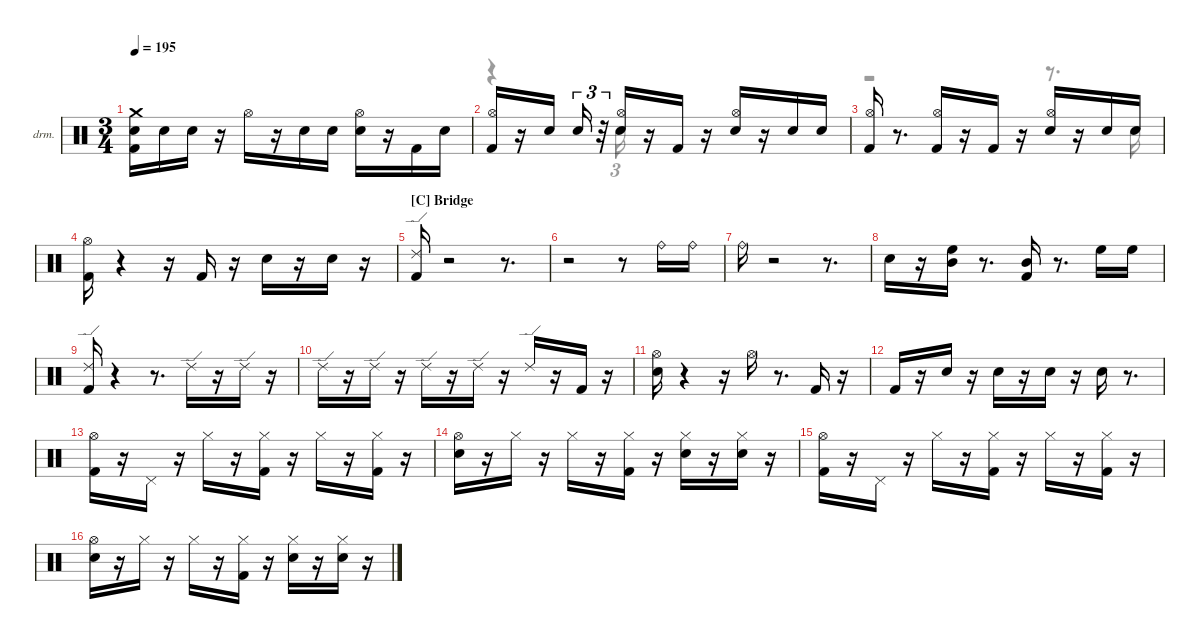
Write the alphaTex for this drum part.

\hideDynamics
\bracketExtendMode nobrackets
\firstSystemTrackNameOrientation horizontal
\track ("Drums" "drm.") {instrument percussion}
\staff {score}
\articulation defaults
\voice
\ts (3 4)
\tempo 195
\clef neutral
\ks aminor
("Kick (hit) 2" "Snare (hit) 2" "Crash medium (hit)").16{dy fff} "Snare (hit) 2".16{dy pp} "Snare (hit) 2".16{dy ppp} r.16 "Hi-Hat (open)"{acc #}.16{dy mp} r.16 "Snare (hit) 2".16{dy ff} "Snare (hit) 2".16{dy pp} ("Snare (hit) 2" "Hi-Hat (open)"{acc #}).16{dy mf} r.16 "Kick (hit) 2".16{dy p} "Snare (hit) 2".16{dy ppp} |
("Kick (hit) 2" "Hi-Hat (open)"{acc #}).16{dy ff} r.16 "Snare (hit) 2".16 "Snare (hit) 2".16{tu (3 2) dy pp} r.32{tu (3 2)} ("Snare (hit) 2" "Hi-Hat (open)"{acc #}).16{dy ppp} r.16 "Kick (hit) 2".16{dy f} r.16 ("Snare (hit) 2" "Hi-Hat (open)"{acc #}).16{dy mf} r.16 "Snare (hit) 2".16{dy f} "Snare (hit) 2".16{dy ppp} |
("Kick (hit) 2" "Hi-Hat (open)"{acc #}).16{dy fff} r.8{d} ("Kick (hit) 2" "Hi-Hat (open)"{acc #}).16{dy mp} r.16 "Kick (hit) 2".16{dy ff} r.16 ("Snare (hit) 2" "Hi-Hat (open)"{acc #}).16 r.16 "Snare (hit) 2".16{dy pp} "Snare (hit) 2".16{dy ppp} |
("Kick (hit) 2" "Hi-Hat (open)"{acc #}).16{dy fff} r.4 r.16 "Kick (hit) 2".16{dy ff} r.16 "Snare (hit) 2".16{dy f} r.16 "Snare (hit) 2".16{dy mp} r.16 |
\section ("C" "Bridge")
("Kick (hit) 2" "Ride (edge) 2").16{dy fff} r.2 r.8{d} |
r.2 r.8 "Ride (bell)".16{dy ff} "Ride (bell)".16{dy f} |
"Ride (bell)".16{dy fff} r.2 r.8{d} |
"Snare (hit) 2".16{dy ff} r.16 ("Mid Tom (hit)" "High Floor Tom (hit)").16 r.8{d} ("Kick (hit) 2" "Mid Tom (hit)").16 r.8{d} "High Floor Tom (hit)".16{dy fff} "High Floor Tom (hit)".16{dy ff} |
("Kick (hit) 2" "Ride (edge) 2").16 r.4 r.8{d} "Ride (edge) 2".16{dy ppp} r.16 "Ride (edge) 2".16 r.16 |
"Ride (edge) 2".16 r.16 "Ride (edge) 2".16 r.16 "Ride (edge) 2".16 r.16 "Ride (edge) 2".16 r.16 "Ride (edge) 2".16{dy f} r.16 "Kick (hit) 2".16{dy ff} r.16 |
("Snare (hit) 2" "Hi-Hat (open)"{acc #}).16{dy f} r.4 r.16 "Hi-Hat (open)"{acc #}.16{dy fff} r.8{d} "Kick (hit) 2".16{dy p} r.16 |
"Kick (hit) 2".16{dy f} r.16 "Snare (hit) 2".16{dy p} r.16 "Snare (hit) 2".16{dy pp} r.16 "Snare (hit) 2".16{dy ff} r.16 "Snare (hit) 2".16{dy fff} r.8{d} |
("Kick (hit) 2" "Hi-Hat (open)"{acc #}).16{dy ff} r.16 "Pedal Hi-Hat (hit)"{acc #}.16 r.16 "Hi-Hat (closed)"{acc #}.16{dy pp} r.16 ("Kick (hit) 2" "Hi-Hat (closed)"{acc #}).16{dy ff} r.16 "Hi-Hat (closed)"{acc #}.16{dy pp} r.16 ("Kick (hit) 2" "Hi-Hat (closed)"{acc #}).16{dy mf} r.16 |
("Snare (hit) 2" "Hi-Hat (open)"{acc #}).16{dy ff} r.16 "Hi-Hat (closed)"{acc #}.16{dy f} r.16 "Hi-Hat (closed)"{acc #}.16{dy fff} r.16 ("Kick (hit) 2" "Hi-Hat (closed)"{acc #}).16{dy pp} r.16 ("Snare (hit) 2" "Hi-Hat (closed)"{acc #}).16{dy ff} r.16 ("Snare (hit) 2" "Hi-Hat (closed)"{acc #}).16{dy pp} r.16 |
("Kick (hit) 2" "Hi-Hat (open)"{acc #}).16{dy fff} r.16 "Pedal Hi-Hat (hit)"{acc #}.16{dy ff} r.16 "Hi-Hat (closed)"{acc #}.16{dy pp} r.16 ("Kick (hit) 2" "Hi-Hat (closed)"{acc #}).16{dy f} r.16 "Hi-Hat (closed)"{acc #}.16{dy pp} r.16 ("Kick (hit) 2" "Hi-Hat (closed)"{acc #}).16{dy mf} r.16 |
("Snare (hit) 2" "Hi-Hat (open)"{acc #}).16{dy ff} r.16 "Hi-Hat (closed)"{acc #}.16{dy f} r.16 "Hi-Hat (closed)"{acc #}.16{dy fff} r.16 ("Kick (hit) 2" "Hi-Hat (closed)"{acc #}).16{dy pp} r.16 ("Snare (hit) 2" "Hi-Hat (closed)"{acc #}).16{dy f} r.16 ("Snare (hit) 2" "Hi-Hat (closed)"{acc #}).16{dy ppp} r.16
\voice
\clef neutral
\ottava regular
\simile none
\ks aminor
|
r.4 "Snare (hit) 2".16{tu (3 2)} |
r.2 r.8{d} "Snare (hit) 2".16 |
|
|
|
|
|
|
|
|
|
|
|
|
